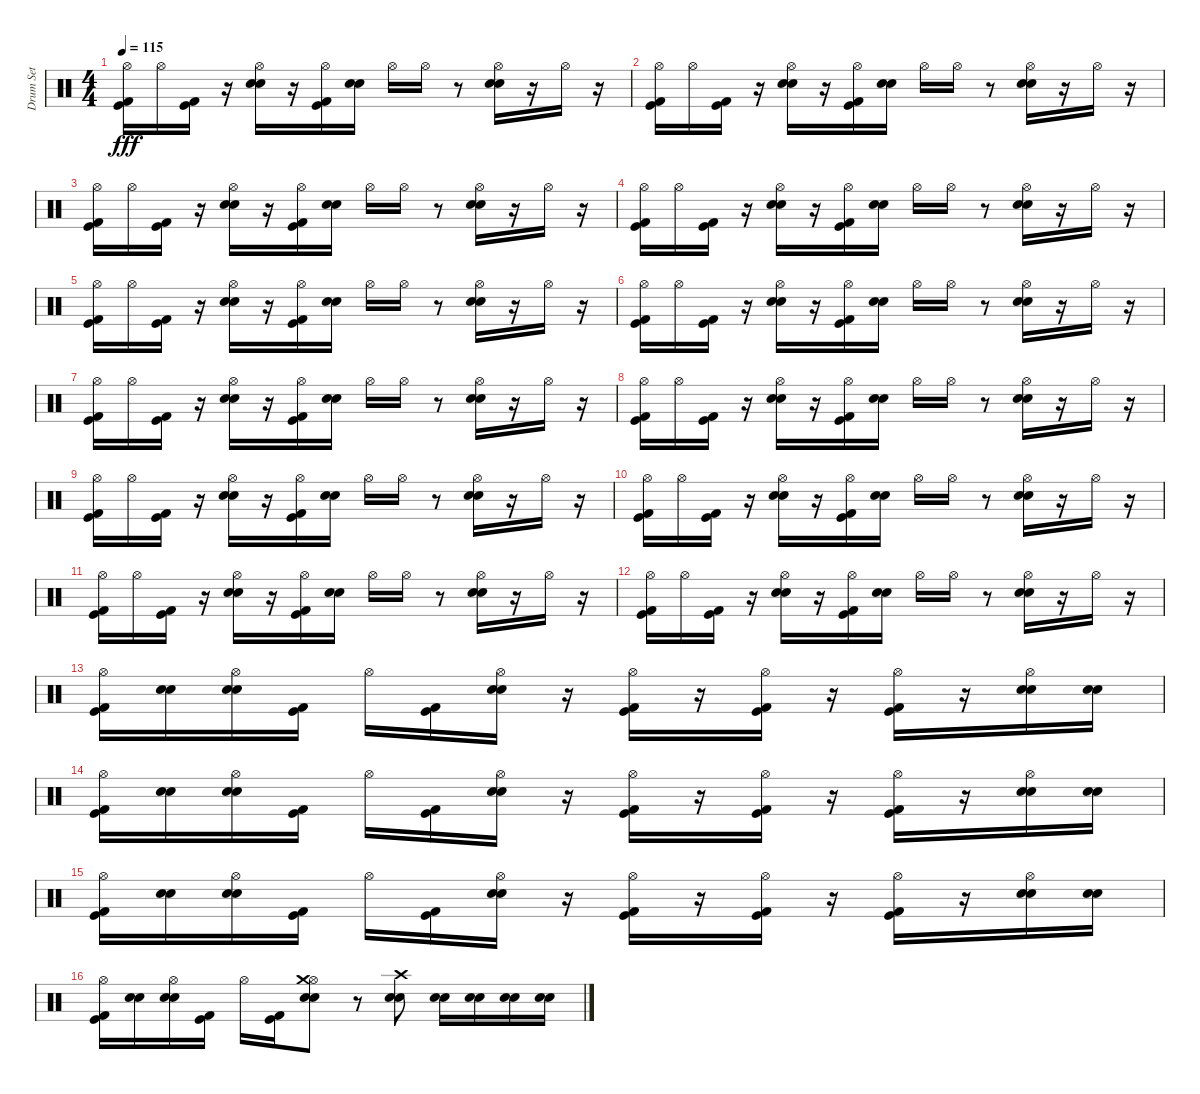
\track ("Drum Set" "Drum Set") {instrument percussion}
\staff {score}
\articulation defaults
\ts (4 4)
\tempo 115
\clef neutral
\ks c
("Hi-Hat (open)" "Kick (hit)" "Kick (hit) 2").16{dy fff} "Hi-Hat (open)".16 ("Kick (hit)" "Kick (hit) 2").16 r.16 ("Hi-Hat (open)" "Electric Snare (hit)" "Snare (hit) 2").16 r.16 ("Hi-Hat (open)" "Kick (hit) 2" "Kick (hit)").16 ("Electric Snare (hit)" "Snare (hit) 2").16 "Hi-Hat (open)".16 "Hi-Hat (open)".16 r.8 ("Hi-Hat (open)" "Electric Snare (hit)" "Snare (hit) 2").16 r.16 "Hi-Hat (open)".16 r.16 |
("Hi-Hat (open)" "Kick (hit)" "Kick (hit) 2").16 "Hi-Hat (open)".16 ("Kick (hit)" "Kick (hit) 2").16 r.16 ("Hi-Hat (open)" "Electric Snare (hit)" "Snare (hit) 2").16 r.16 ("Hi-Hat (open)" "Kick (hit) 2" "Kick (hit)").16 ("Electric Snare (hit)" "Snare (hit) 2").16 "Hi-Hat (open)".16 "Hi-Hat (open)".16 r.8 ("Hi-Hat (open)" "Electric Snare (hit)" "Snare (hit) 2").16 r.16 "Hi-Hat (open)".16 r.16 |
("Hi-Hat (open)" "Kick (hit)" "Kick (hit) 2").16 "Hi-Hat (open)".16 ("Kick (hit)" "Kick (hit) 2").16 r.16 ("Hi-Hat (open)" "Electric Snare (hit)" "Snare (hit) 2").16 r.16 ("Hi-Hat (open)" "Kick (hit) 2" "Kick (hit)").16 ("Electric Snare (hit)" "Snare (hit) 2").16 "Hi-Hat (open)".16 "Hi-Hat (open)".16 r.8 ("Hi-Hat (open)" "Electric Snare (hit)" "Snare (hit) 2").16 r.16 "Hi-Hat (open)".16 r.16 |
("Hi-Hat (open)" "Kick (hit)" "Kick (hit) 2").16 "Hi-Hat (open)".16 ("Kick (hit)" "Kick (hit) 2").16 r.16 ("Hi-Hat (open)" "Electric Snare (hit)" "Snare (hit) 2").16 r.16 ("Hi-Hat (open)" "Kick (hit) 2" "Kick (hit)").16 ("Electric Snare (hit)" "Snare (hit) 2").16 "Hi-Hat (open)".16 "Hi-Hat (open)".16 r.8 ("Hi-Hat (open)" "Electric Snare (hit)" "Snare (hit) 2").16 r.16 "Hi-Hat (open)".16 r.16 |
("Hi-Hat (open)" "Kick (hit)" "Kick (hit) 2").16 "Hi-Hat (open)".16 ("Kick (hit)" "Kick (hit) 2").16 r.16 ("Hi-Hat (open)" "Electric Snare (hit)" "Snare (hit) 2").16 r.16 ("Hi-Hat (open)" "Kick (hit) 2" "Kick (hit)").16 ("Electric Snare (hit)" "Snare (hit) 2").16 "Hi-Hat (open)".16 "Hi-Hat (open)".16 r.8 ("Hi-Hat (open)" "Electric Snare (hit)" "Snare (hit) 2").16 r.16 "Hi-Hat (open)".16 r.16 |
("Hi-Hat (open)" "Kick (hit)" "Kick (hit) 2").16 "Hi-Hat (open)".16 ("Kick (hit)" "Kick (hit) 2").16 r.16 ("Hi-Hat (open)" "Electric Snare (hit)" "Snare (hit) 2").16 r.16 ("Hi-Hat (open)" "Kick (hit) 2" "Kick (hit)").16 ("Electric Snare (hit)" "Snare (hit) 2").16 "Hi-Hat (open)".16 "Hi-Hat (open)".16 r.8 ("Hi-Hat (open)" "Electric Snare (hit)" "Snare (hit) 2").16 r.16 "Hi-Hat (open)".16 r.16 |
("Hi-Hat (open)" "Kick (hit)" "Kick (hit) 2").16 "Hi-Hat (open)".16 ("Kick (hit)" "Kick (hit) 2").16 r.16 ("Hi-Hat (open)" "Electric Snare (hit)" "Snare (hit) 2").16 r.16 ("Hi-Hat (open)" "Kick (hit) 2" "Kick (hit)").16 ("Electric Snare (hit)" "Snare (hit) 2").16 "Hi-Hat (open)".16 "Hi-Hat (open)".16 r.8 ("Hi-Hat (open)" "Electric Snare (hit)" "Snare (hit) 2").16 r.16 "Hi-Hat (open)".16 r.16 |
("Hi-Hat (open)" "Kick (hit)" "Kick (hit) 2").16 "Hi-Hat (open)".16 ("Kick (hit)" "Kick (hit) 2").16 r.16 ("Hi-Hat (open)" "Electric Snare (hit)" "Snare (hit) 2").16 r.16 ("Hi-Hat (open)" "Kick (hit) 2" "Kick (hit)").16 ("Electric Snare (hit)" "Snare (hit) 2").16 "Hi-Hat (open)".16 "Hi-Hat (open)".16 r.8 ("Hi-Hat (open)" "Electric Snare (hit)" "Snare (hit) 2").16 r.16 "Hi-Hat (open)".16 r.16 |
("Hi-Hat (open)" "Kick (hit)" "Kick (hit) 2").16 "Hi-Hat (open)".16 ("Kick (hit)" "Kick (hit) 2").16 r.16 ("Hi-Hat (open)" "Electric Snare (hit)" "Snare (hit) 2").16 r.16 ("Hi-Hat (open)" "Kick (hit) 2" "Kick (hit)").16 ("Electric Snare (hit)" "Snare (hit) 2").16 "Hi-Hat (open)".16 "Hi-Hat (open)".16 r.8 ("Hi-Hat (open)" "Electric Snare (hit)" "Snare (hit) 2").16 r.16 "Hi-Hat (open)".16 r.16 |
("Hi-Hat (open)" "Kick (hit)" "Kick (hit) 2").16 "Hi-Hat (open)".16 ("Kick (hit)" "Kick (hit) 2").16 r.16 ("Hi-Hat (open)" "Electric Snare (hit)" "Snare (hit) 2").16 r.16 ("Hi-Hat (open)" "Kick (hit) 2" "Kick (hit)").16 ("Electric Snare (hit)" "Snare (hit) 2").16 "Hi-Hat (open)".16 "Hi-Hat (open)".16 r.8 ("Hi-Hat (open)" "Electric Snare (hit)" "Snare (hit) 2").16 r.16 "Hi-Hat (open)".16 r.16 |
("Hi-Hat (open)" "Kick (hit)" "Kick (hit) 2").16 "Hi-Hat (open)".16 ("Kick (hit)" "Kick (hit) 2").16 r.16 ("Hi-Hat (open)" "Electric Snare (hit)" "Snare (hit) 2").16 r.16 ("Hi-Hat (open)" "Kick (hit) 2" "Kick (hit)").16 ("Electric Snare (hit)" "Snare (hit) 2").16 "Hi-Hat (open)".16 "Hi-Hat (open)".16 r.8 ("Hi-Hat (open)" "Electric Snare (hit)" "Snare (hit) 2").16 r.16 "Hi-Hat (open)".16 r.16 |
("Hi-Hat (open)" "Kick (hit)" "Kick (hit) 2").16 "Hi-Hat (open)".16 ("Kick (hit)" "Kick (hit) 2").16 r.16 ("Hi-Hat (open)" "Electric Snare (hit)" "Snare (hit) 2").16 r.16 ("Hi-Hat (open)" "Kick (hit) 2" "Kick (hit)").16 ("Electric Snare (hit)" "Snare (hit) 2").16 "Hi-Hat (open)".16 "Hi-Hat (open)".16 r.8 ("Hi-Hat (open)" "Electric Snare (hit)" "Snare (hit) 2").16 r.16 "Hi-Hat (open)".16 r.16 |
("Hi-Hat (open)" "Kick (hit) 2" "Kick (hit)").16 ("Electric Snare (hit)" "Snare (hit) 2").16 ("Hi-Hat (open)" "Snare (hit) 2" "Electric Snare (hit)").16 ("Kick (hit)" "Kick (hit) 2").16 "Hi-Hat (open)".16 ("Kick (hit) 2" "Kick (hit)").16 ("Hi-Hat (open)" "Electric Snare (hit)" "Snare (hit) 2").16 r.16 ("Kick (hit)" "Kick (hit) 2" "Hi-Hat (open)").16 r.16 ("Hi-Hat (open)" "Kick (hit) 2" "Kick (hit)").16 r.16 ("Hi-Hat (open)" "Kick (hit)" "Kick (hit) 2").16 r.16 ("Hi-Hat (open)" "Electric Snare (hit)" "Snare (hit) 2").16 ("Snare (hit) 2" "Electric Snare (hit)").16 |
("Hi-Hat (open)" "Kick (hit) 2" "Kick (hit)").16 ("Electric Snare (hit)" "Snare (hit) 2").16 ("Hi-Hat (open)" "Snare (hit) 2" "Electric Snare (hit)").16 ("Kick (hit)" "Kick (hit) 2").16 "Hi-Hat (open)".16 ("Kick (hit) 2" "Kick (hit)").16 ("Hi-Hat (open)" "Electric Snare (hit)" "Snare (hit) 2").16 r.16 ("Kick (hit)" "Kick (hit) 2" "Hi-Hat (open)").16 r.16 ("Hi-Hat (open)" "Kick (hit) 2" "Kick (hit)").16 r.16 ("Hi-Hat (open)" "Kick (hit)" "Kick (hit) 2").16 r.16 ("Hi-Hat (open)" "Electric Snare (hit)" "Snare (hit) 2").16 ("Snare (hit) 2" "Electric Snare (hit)").16 |
("Hi-Hat (open)" "Kick (hit) 2" "Kick (hit)").16 ("Electric Snare (hit)" "Snare (hit) 2").16 ("Hi-Hat (open)" "Snare (hit) 2" "Electric Snare (hit)").16 ("Kick (hit)" "Kick (hit) 2").16 "Hi-Hat (open)".16 ("Kick (hit) 2" "Kick (hit)").16 ("Hi-Hat (open)" "Electric Snare (hit)" "Snare (hit) 2").16 r.16 ("Kick (hit)" "Kick (hit) 2" "Hi-Hat (open)").16 r.16 ("Hi-Hat (open)" "Kick (hit) 2" "Kick (hit)").16 r.16 ("Hi-Hat (open)" "Kick (hit)" "Kick (hit) 2").16 r.16 ("Hi-Hat (open)" "Electric Snare (hit)" "Snare (hit) 2").16 ("Snare (hit) 2" "Electric Snare (hit)").16 |
("Hi-Hat (open)" "Kick (hit) 2" "Kick (hit)").16 ("Electric Snare (hit)" "Snare (hit) 2").16 ("Hi-Hat (open)" "Snare (hit) 2" "Electric Snare (hit)").16 ("Kick (hit)" "Kick (hit) 2").16 "Hi-Hat (open)".16 ("Kick (hit) 2" "Kick (hit)").16 ("Hi-Hat (open)" "Electric Snare (hit)" "Snare (hit) 2" "Crash medium (hit)").8 r.8 ("Snare (hit) 2" "Electric Snare (hit)" "Crash high (hit)").8 ("Snare (hit) 2" "Electric Snare (hit)").16 ("Electric Snare (hit)" "Snare (hit) 2").16 ("Snare (hit) 2" "Electric Snare (hit)").16 ("Electric Snare (hit)" "Snare (hit) 2").16
